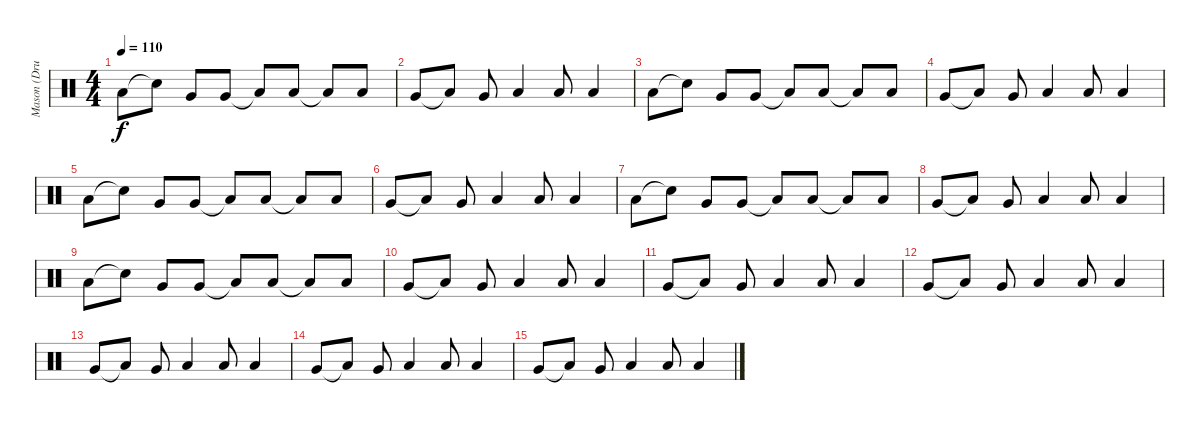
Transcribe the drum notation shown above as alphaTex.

\track ("Mason (Drums)" "Mason (Dru") {instrument percussion}
\staff {score}
\articulation defaults
\ts (4 4)
\tempo 110
\clef neutral
\ks c "Low Tom (hit)".8{dy f} "Snare (hit)"{t}.8 "Very Low Tom (hit)".8 "Very Low Tom (hit)".8 "Low Floor Tom (hit)"{t}.8 "Low Floor Tom (hit)".8 "Low Tom (hit)"{t}.8 "Low Tom (hit)".8
|
"Very Low Tom (hit)".8 "Low Floor Tom (hit)"{t}.8 "Very Low Tom (hit)".8 "Low Tom (hit)".4 "Low Floor Tom (hit)".8 "Low Floor Tom (hit)".4 |
"Low Tom (hit)".8 "Snare (hit)"{t}.8 "Very Low Tom (hit)".8 "Very Low Tom (hit)".8 "Low Floor Tom (hit)"{t}.8 "Low Floor Tom (hit)".8 "Low Tom (hit)"{t}.8 "Low Tom (hit)".8 |
"Very Low Tom (hit)".8 "Low Floor Tom (hit)"{t}.8 "Very Low Tom (hit)".8 "Low Tom (hit)".4 "Low Floor Tom (hit)".8 "Low Floor Tom (hit)".4 |
"Low Tom (hit)".8 "Snare (hit)"{t}.8 "Very Low Tom (hit)".8 "Very Low Tom (hit)".8 "Low Floor Tom (hit)"{t}.8 "Low Floor Tom (hit)".8 "Low Tom (hit)"{t}.8 "Low Tom (hit)".8 |
"Very Low Tom (hit)".8 "Low Floor Tom (hit)"{t}.8 "Very Low Tom (hit)".8 "Low Tom (hit)".4 "Low Floor Tom (hit)".8 "Low Floor Tom (hit)".4 |
"Low Tom (hit)".8 "Snare (hit)"{t}.8 "Very Low Tom (hit)".8 "Very Low Tom (hit)".8 "Low Floor Tom (hit)"{t}.8 "Low Floor Tom (hit)".8 "Low Tom (hit)"{t}.8 "Low Tom (hit)".8 |
"Very Low Tom (hit)".8 "Low Floor Tom (hit)"{t}.8 "Very Low Tom (hit)".8 "Low Tom (hit)".4 "Low Floor Tom (hit)".8 "Low Floor Tom (hit)".4 |
"Low Tom (hit)".8 "Snare (hit)"{t}.8 "Very Low Tom (hit)".8 "Very Low Tom (hit)".8 "Low Floor Tom (hit)"{t}.8 "Low Floor Tom (hit)".8 "Low Tom (hit)"{t}.8 "Low Tom (hit)".8 |
"Very Low Tom (hit)".8 "Low Floor Tom (hit)"{t}.8 "Very Low Tom (hit)".8 "Low Tom (hit)".4 "Low Floor Tom (hit)".8 "Low Floor Tom (hit)".4 |
"Very Low Tom (hit)".8 "Low Floor Tom (hit)"{t}.8 "Very Low Tom (hit)".8 "Low Tom (hit)".4 "Low Floor Tom (hit)".8 "Low Floor Tom (hit)".4 |
"Very Low Tom (hit)".8{volume 0} "Low Floor Tom (hit)"{t}.8 "Very Low Tom (hit)".8 "Low Tom (hit)".4 "Low Floor Tom (hit)".8 "Low Floor Tom (hit)".4 |
"Very Low Tom (hit)".8 "Low Floor Tom (hit)"{t}.8 "Very Low Tom (hit)".8 "Low Tom (hit)".4 "Low Floor Tom (hit)".8 "Low Floor Tom (hit)".4 |
"Very Low Tom (hit)".8 "Low Floor Tom (hit)"{t}.8 "Very Low Tom (hit)".8 "Low Tom (hit)".4 "Low Floor Tom (hit)".8 "Low Floor Tom (hit)".4 |
"Very Low Tom (hit)".8 "Low Floor Tom (hit)"{t}.8 "Very Low Tom (hit)".8 "Low Tom (hit)".4 "Low Floor Tom (hit)".8 "Low Floor Tom (hit)".4
